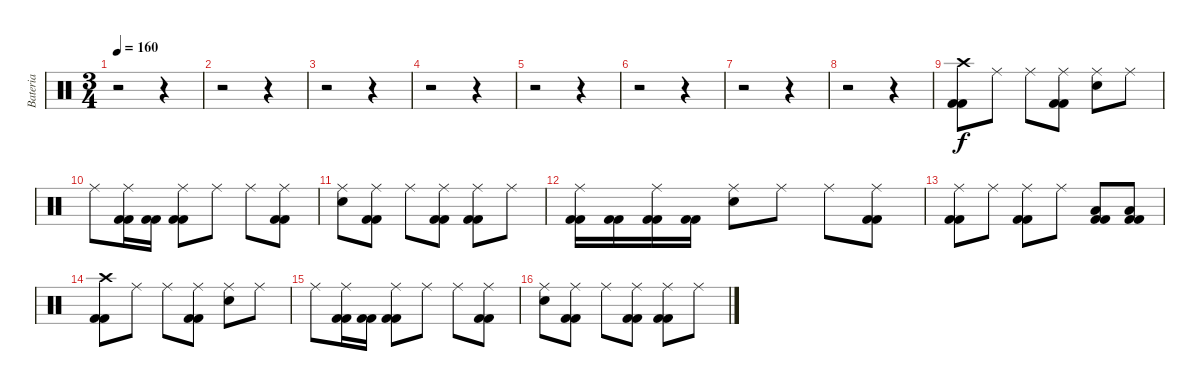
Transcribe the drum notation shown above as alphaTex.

\track ("Bateria" "Bateria") {instrument percussion}
\staff {score}
\articulation defaults
\ts (3 4)
\tempo 160
\clef neutral
\ks c
r.2{dy f} r.4 |
r.2 r.4 |
r.2 r.4 |
r.2 r.4 |
r.2 r.4 |
r.2 r.4 |
r.2 r.4 |
r.2 r.4 |
("Kick (hit) 2" "Kick (hit) 2" "Crash high (hit)").8 "Ride (middle)".8 "Ride (middle)".8 ("Kick (hit) 2" "Kick (hit) 2" "Ride (middle)").8 ("Snare (hit) 2" "Ride (middle)").8 "Ride (middle)".8 |
"Ride (middle)".8 ("Kick (hit) 2" "Kick (hit) 2" "Ride (middle)").16 ("Kick (hit) 2" "Kick (hit) 2").16 ("Kick (hit) 2" "Kick (hit) 2" "Ride (middle)").8 "Ride (middle)".8 "Ride (middle)".8 ("Kick (hit) 2" "Kick (hit) 2" "Ride (middle)").8 |
("Snare (hit) 2" "Ride (middle)").8 ("Kick (hit) 2" "Kick (hit) 2" "Ride (middle)").8 "Ride (middle)".8 ("Kick (hit) 2" "Kick (hit) 2" "Ride (middle)").8 ("Kick (hit) 2" "Kick (hit) 2" "Ride (middle)").8 "Ride (middle)".8 |
("Kick (hit) 2" "Kick (hit) 2" "Ride (middle)").16 ("Kick (hit) 2" "Kick (hit) 2").16 ("Kick (hit) 2" "Kick (hit) 2" "Ride (middle)").16 ("Kick (hit) 2" "Kick (hit) 2").16 ("Snare (hit) 2" "Ride (middle)").8 "Ride (middle)".8 "Ride (middle)".8 ("Kick (hit) 2" "Kick (hit) 2" "Ride (middle)").8 |
("Kick (hit) 2" "Kick (hit) 2" "Ride (middle)").8 "Ride (middle)".8 ("Kick (hit) 2" "Kick (hit) 2" "Ride (middle)").8 "Ride (middle)".8 ("Kick (hit) 2" "Kick (hit) 2" "Low Tom (hit)").8 ("Kick (hit) 2" "Kick (hit) 2" "Low Tom (hit)").8 |
("Kick (hit) 2" "Kick (hit) 2" "Crash high (hit)").8 "Ride (middle)".8 "Ride (middle)".8 ("Kick (hit) 2" "Kick (hit) 2" "Ride (middle)").8 ("Snare (hit) 2" "Ride (middle)").8 "Ride (middle)".8 |
"Ride (middle)".8 ("Kick (hit) 2" "Kick (hit) 2" "Ride (middle)").16 ("Kick (hit) 2" "Kick (hit) 2").16 ("Kick (hit) 2" "Kick (hit) 2" "Ride (middle)").8 "Ride (middle)".8 "Ride (middle)".8 ("Kick (hit) 2" "Kick (hit) 2" "Ride (middle)").8 |
("Snare (hit) 2" "Ride (middle)").8 ("Kick (hit) 2" "Kick (hit) 2" "Ride (middle)").8 "Ride (middle)".8 ("Kick (hit) 2" "Kick (hit) 2" "Ride (middle)").8 ("Kick (hit) 2" "Kick (hit) 2" "Ride (middle)").8 "Ride (middle)".8
